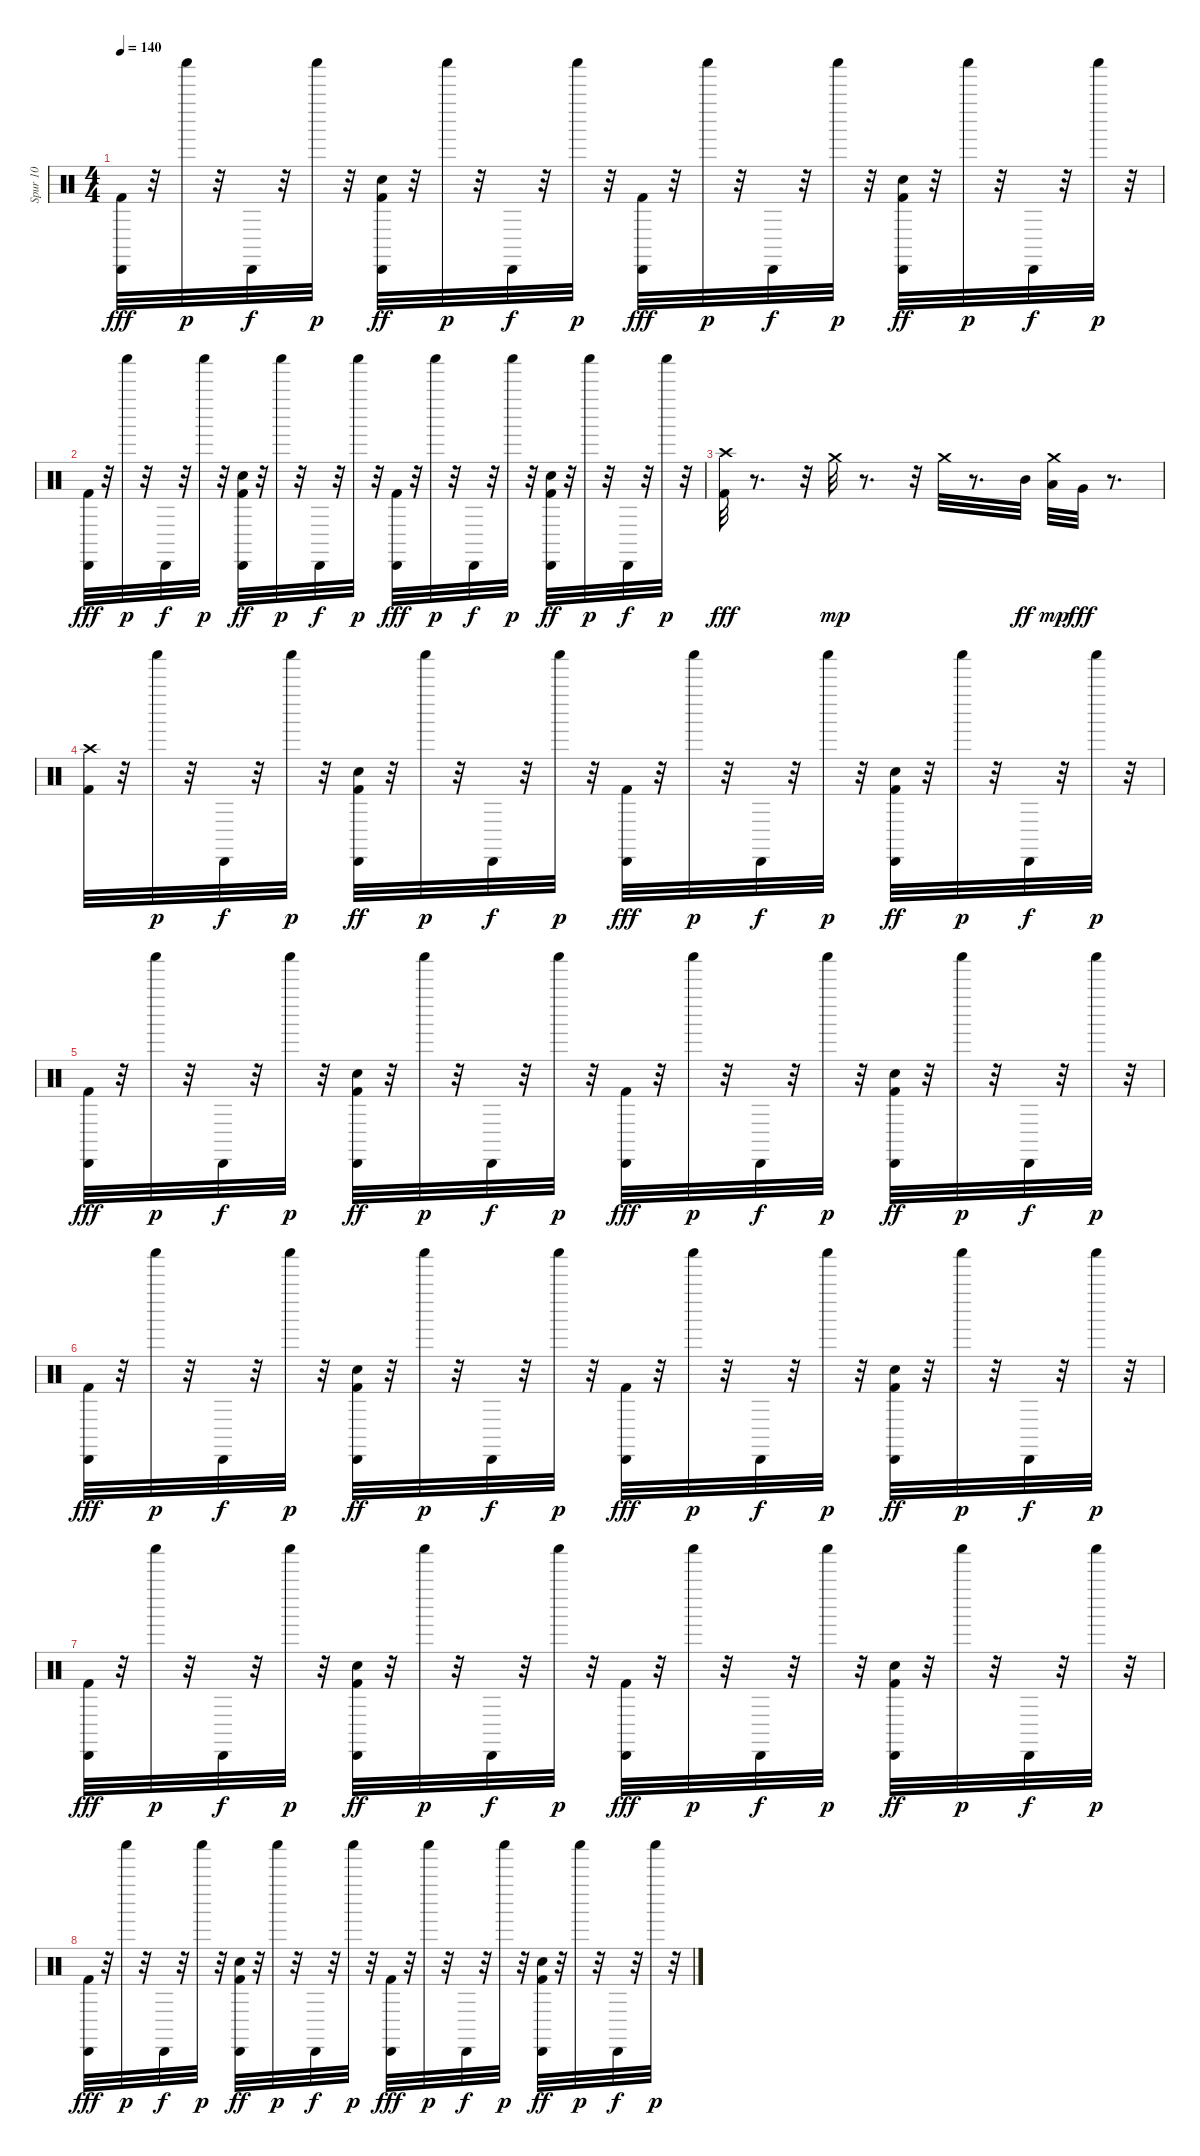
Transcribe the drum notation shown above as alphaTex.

\track ("Spur 10" "Spur 10") {instrument percussion}
\staff {score}
\articulation defaults
\ts (4 4)
\tempo 140
\clef neutral
\ks c
("Cabasa (hit)" "Kick (hit) 2").32{dy fff} r.32 "Shaker (hit)".32{dy p} r.32 "Cabasa (hit)".32{dy f} r.32 "Shaker (hit)".32{dy p} r.32 ("Snare (hit) 2" "Cabasa (hit)" "Kick (hit) 2").32{dy ff} r.32 "Shaker (hit)".32{dy p} r.32 "Cabasa (hit)".32{dy f} r.32 "Shaker (hit)".32{dy p} r.32 ("Cabasa (hit)" "Kick (hit) 2").32{dy fff} r.32 "Shaker (hit)".32{dy p} r.32 "Cabasa (hit)".32{dy f} r.32 "Shaker (hit)".32{dy p} r.32 ("Snare (hit) 2" "Cabasa (hit)" "Kick (hit) 2").32{dy ff} r.32 "Shaker (hit)".32{dy p} r.32 "Cabasa (hit)".32{dy f} r.32 "Shaker (hit)".32{dy p} r.32 |
("Cabasa (hit)" "Kick (hit) 2").32{dy fff} r.32 "Shaker (hit)".32{dy p} r.32 "Cabasa (hit)".32{dy f} r.32 "Shaker (hit)".32{dy p} r.32 ("Snare (hit) 2" "Cabasa (hit)" "Kick (hit) 2").32{dy ff} r.32 "Shaker (hit)".32{dy p} r.32 "Cabasa (hit)".32{dy f} r.32 "Shaker (hit)".32{dy p} r.32 ("Cabasa (hit)" "Kick (hit) 2").32{dy fff} r.32 "Shaker (hit)".32{dy p} r.32 "Cabasa (hit)".32{dy f} r.32 "Shaker (hit)".32{dy p} r.32 ("Snare (hit) 2" "Cabasa (hit)" "Kick (hit) 2").32{dy ff} r.32 "Shaker (hit)".32{dy p} r.32 "Cabasa (hit)".32{dy f} r.32 "Shaker (hit)".32{dy p} r.32 |
("Crash high (hit)" "Kick (hit) 2").32{dy fff} r.8{d} r.32 "Crash medium (hit)".32{dy mp} r.8{d} r.32 "Crash medium (hit)".32 r.8{d} "Mid Tom (hit)".32{dy ff} ("Low Tom (hit)" "Crash medium (hit)").32{dy mp} "Very Low Tom (hit)".32{dy fff} r.8{d} |
("Crash high (hit)" "Kick (hit) 2").32 r.32 "Shaker (hit)".32{dy p} r.32 "Cabasa (hit)".32{dy f} r.32 "Shaker (hit)".32{dy p} r.32 ("Snare (hit) 2" "Cabasa (hit)" "Kick (hit) 2").32{dy ff} r.32 "Shaker (hit)".32{dy p} r.32 "Cabasa (hit)".32{dy f} r.32 "Shaker (hit)".32{dy p} r.32 ("Cabasa (hit)" "Kick (hit) 2").32{dy fff} r.32 "Shaker (hit)".32{dy p} r.32 "Cabasa (hit)".32{dy f} r.32 "Shaker (hit)".32{dy p} r.32 ("Snare (hit) 2" "Cabasa (hit)" "Kick (hit) 2").32{dy ff} r.32 "Shaker (hit)".32{dy p} r.32 "Cabasa (hit)".32{dy f} r.32 "Shaker (hit)".32{dy p} r.32 |
("Cabasa (hit)" "Kick (hit) 2").32{dy fff} r.32 "Shaker (hit)".32{dy p} r.32 "Cabasa (hit)".32{dy f} r.32 "Shaker (hit)".32{dy p} r.32 ("Snare (hit) 2" "Cabasa (hit)" "Kick (hit) 2").32{dy ff} r.32 "Shaker (hit)".32{dy p} r.32 "Cabasa (hit)".32{dy f} r.32 "Shaker (hit)".32{dy p} r.32 ("Cabasa (hit)" "Kick (hit) 2").32{dy fff} r.32 "Shaker (hit)".32{dy p} r.32 "Cabasa (hit)".32{dy f} r.32 "Shaker (hit)".32{dy p} r.32 ("Snare (hit) 2" "Cabasa (hit)" "Kick (hit) 2").32{dy ff} r.32 "Shaker (hit)".32{dy p} r.32 "Cabasa (hit)".32{dy f} r.32 "Shaker (hit)".32{dy p} r.32 |
("Cabasa (hit)" "Kick (hit) 2").32{dy fff} r.32 "Shaker (hit)".32{dy p} r.32 "Cabasa (hit)".32{dy f} r.32 "Shaker (hit)".32{dy p} r.32 ("Snare (hit) 2" "Cabasa (hit)" "Kick (hit) 2").32{dy ff} r.32 "Shaker (hit)".32{dy p} r.32 "Cabasa (hit)".32{dy f} r.32 "Shaker (hit)".32{dy p} r.32 ("Cabasa (hit)" "Kick (hit) 2").32{dy fff} r.32 "Shaker (hit)".32{dy p} r.32 "Cabasa (hit)".32{dy f} r.32 "Shaker (hit)".32{dy p} r.32 ("Snare (hit) 2" "Cabasa (hit)" "Kick (hit) 2").32{dy ff} r.32 "Shaker (hit)".32{dy p} r.32 "Cabasa (hit)".32{dy f} r.32 "Shaker (hit)".32{dy p} r.32 |
("Cabasa (hit)" "Kick (hit) 2").32{dy fff} r.32 "Shaker (hit)".32{dy p} r.32 "Cabasa (hit)".32{dy f} r.32 "Shaker (hit)".32{dy p} r.32 ("Snare (hit) 2" "Cabasa (hit)" "Kick (hit) 2").32{dy ff} r.32 "Shaker (hit)".32{dy p} r.32 "Cabasa (hit)".32{dy f} r.32 "Shaker (hit)".32{dy p} r.32 ("Cabasa (hit)" "Kick (hit) 2").32{dy fff} r.32 "Shaker (hit)".32{dy p} r.32 "Cabasa (hit)".32{dy f} r.32 "Shaker (hit)".32{dy p} r.32 ("Snare (hit) 2" "Cabasa (hit)" "Kick (hit) 2").32{dy ff} r.32 "Shaker (hit)".32{dy p} r.32 "Cabasa (hit)".32{dy f} r.32 "Shaker (hit)".32{dy p} r.32 |
("Cabasa (hit)" "Kick (hit) 2").32{dy fff} r.32 "Shaker (hit)".32{dy p} r.32 "Cabasa (hit)".32{dy f} r.32 "Shaker (hit)".32{dy p} r.32 ("Snare (hit) 2" "Cabasa (hit)" "Kick (hit) 2").32{dy ff} r.32 "Shaker (hit)".32{dy p} r.32 "Cabasa (hit)".32{dy f} r.32 "Shaker (hit)".32{dy p} r.32 ("Cabasa (hit)" "Kick (hit) 2").32{dy fff} r.32 "Shaker (hit)".32{dy p} r.32 "Cabasa (hit)".32{dy f} r.32 "Shaker (hit)".32{dy p} r.32 ("Snare (hit) 2" "Cabasa (hit)" "Kick (hit) 2").32{dy ff} r.32 "Shaker (hit)".32{dy p} r.32 "Cabasa (hit)".32{dy f} r.32 "Shaker (hit)".32{dy p} r.32
